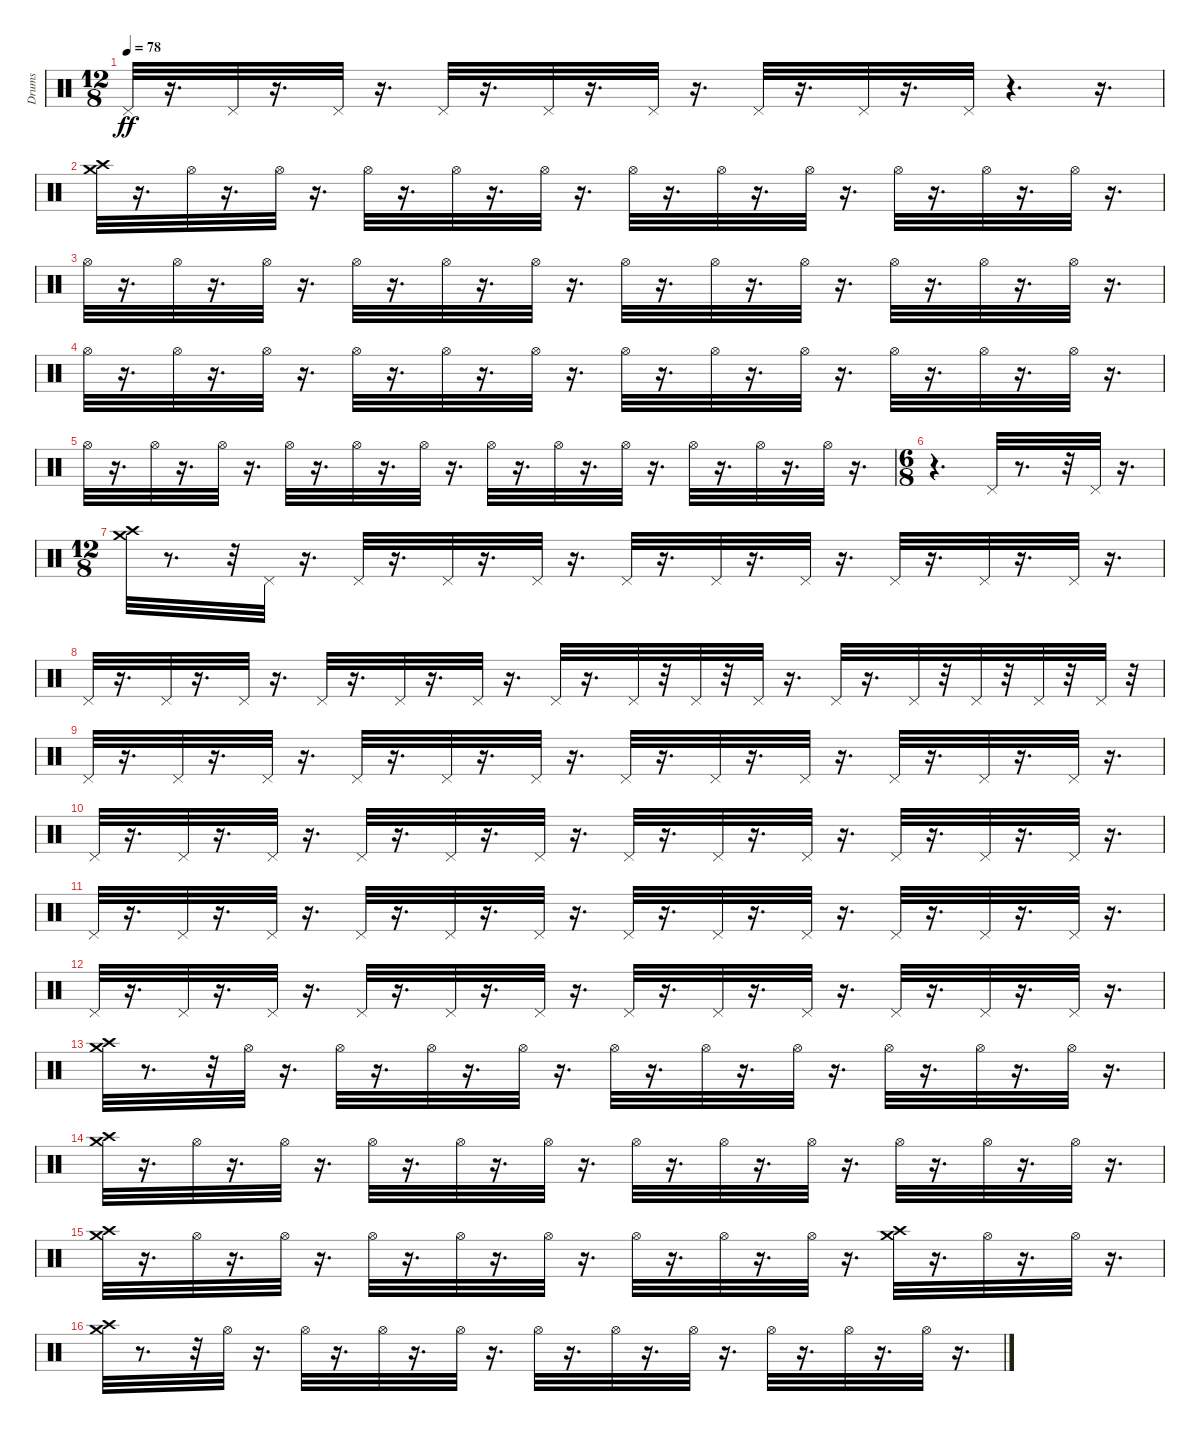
\track ("Drums" "Drums") {instrument percussion}
\staff {score}
\articulation defaults
\ts (12 8)
\tempo 78
\clef neutral
\ks c "Pedal Hi-Hat (hit)".32{dy ff}
r.16{d} "Pedal Hi-Hat (hit)".32 r.16{d} "Pedal Hi-Hat (hit)".32 r.16{d} "Pedal Hi-Hat (hit)".32 r.16{d} "Pedal Hi-Hat (hit)".32 r.16{d} "Pedal Hi-Hat (hit)".32 r.16{d} "Pedal Hi-Hat (hit)".32 r.16{d} "Pedal Hi-Hat (hit)".32 r.16{d} "Pedal Hi-Hat (hit)".32 r.4{d} r.16{d} |
("Crash high (hit)" "Crash medium (hit)").32 r.16{d} "Hi-Hat (open)".32 r.16{d} "Hi-Hat (open)".32 r.16{d} "Hi-Hat (open)".32 r.16{d} "Hi-Hat (open)".32 r.16{d} "Hi-Hat (open)".32 r.16{d} "Hi-Hat (open)".32 r.16{d} "Hi-Hat (open)".32 r.16{d} "Hi-Hat (open)".32 r.16{d} "Hi-Hat (open)".32 r.16{d} "Hi-Hat (open)".32 r.16{d} "Hi-Hat (open)".32 r.16{d} |
"Hi-Hat (open)".32 r.16{d} "Hi-Hat (open)".32 r.16{d} "Hi-Hat (open)".32 r.16{d} "Hi-Hat (open)".32 r.16{d} "Hi-Hat (open)".32 r.16{d} "Hi-Hat (open)".32 r.16{d} "Hi-Hat (open)".32 r.16{d} "Hi-Hat (open)".32 r.16{d} "Hi-Hat (open)".32 r.16{d} "Hi-Hat (open)".32 r.16{d} "Hi-Hat (open)".32 r.16{d} "Hi-Hat (open)".32 r.16{d} |
"Hi-Hat (open)".32 r.16{d} "Hi-Hat (open)".32 r.16{d} "Hi-Hat (open)".32 r.16{d} "Hi-Hat (open)".32 r.16{d} "Hi-Hat (open)".32 r.16{d} "Hi-Hat (open)".32 r.16{d} "Hi-Hat (open)".32 r.16{d} "Hi-Hat (open)".32 r.16{d} "Hi-Hat (open)".32 r.16{d} "Hi-Hat (open)".32 r.16{d} "Hi-Hat (open)".32 r.16{d} "Hi-Hat (open)".32 r.16{d} |
"Hi-Hat (open)".32 r.16{d} "Hi-Hat (open)".32 r.16{d} "Hi-Hat (open)".32 r.16{d} "Hi-Hat (open)".32 r.16{d} "Hi-Hat (open)".32 r.16{d} "Hi-Hat (open)".32 r.16{d} "Hi-Hat (open)".32 r.16{d} "Hi-Hat (open)".32 r.16{d} "Hi-Hat (open)".32 r.16{d} "Hi-Hat (open)".32 r.16{d} "Hi-Hat (open)".32 r.16{d} "Hi-Hat (open)".32 r.16{d} |
\ts (6 8)
r.4{d} "Pedal Hi-Hat (hit)".32 r.8{d} r.32 "Pedal Hi-Hat (hit)".32 r.16{d} |
\ts (12 8)
("Crash medium (hit)" "Crash high (hit)").32 r.8{d} r.32 "Pedal Hi-Hat (hit)".32 r.16{d} "Pedal Hi-Hat (hit)".32 r.16{d} "Pedal Hi-Hat (hit)".32 r.16{d} "Pedal Hi-Hat (hit)".32 r.16{d} "Pedal Hi-Hat (hit)".32 r.16{d} "Pedal Hi-Hat (hit)".32 r.16{d} "Pedal Hi-Hat (hit)".32 r.16{d} "Pedal Hi-Hat (hit)".32 r.16{d} "Pedal Hi-Hat (hit)".32 r.16{d} "Pedal Hi-Hat (hit)".32 r.16{d} |
"Pedal Hi-Hat (hit)".32 r.16{d} "Pedal Hi-Hat (hit)".32 r.16{d} "Pedal Hi-Hat (hit)".32 r.16{d} "Pedal Hi-Hat (hit)".32 r.16{d} "Pedal Hi-Hat (hit)".32 r.16{d} "Pedal Hi-Hat (hit)".32 r.16{d} "Pedal Hi-Hat (hit)".32 r.16{d} "Pedal Hi-Hat (hit)".32 r.32 "Pedal Hi-Hat (hit)".32 r.32 "Pedal Hi-Hat (hit)".32 r.16{d} "Pedal Hi-Hat (hit)".32 r.16{d} "Pedal Hi-Hat (hit)".32 r.32 "Pedal Hi-Hat (hit)".32 r.32 "Pedal Hi-Hat (hit)".32 r.32 "Pedal Hi-Hat (hit)".32 r.32 |
"Pedal Hi-Hat (hit)".32 r.16{d} "Pedal Hi-Hat (hit)".32 r.16{d} "Pedal Hi-Hat (hit)".32 r.16{d} "Pedal Hi-Hat (hit)".32 r.16{d} "Pedal Hi-Hat (hit)".32 r.16{d} "Pedal Hi-Hat (hit)".32 r.16{d} "Pedal Hi-Hat (hit)".32 r.16{d} "Pedal Hi-Hat (hit)".32 r.16{d} "Pedal Hi-Hat (hit)".32 r.16{d} "Pedal Hi-Hat (hit)".32 r.16{d} "Pedal Hi-Hat (hit)".32 r.16{d} "Pedal Hi-Hat (hit)".32 r.16{d} |
"Pedal Hi-Hat (hit)".32 r.16{d} "Pedal Hi-Hat (hit)".32 r.16{d} "Pedal Hi-Hat (hit)".32 r.16{d} "Pedal Hi-Hat (hit)".32 r.16{d} "Pedal Hi-Hat (hit)".32 r.16{d} "Pedal Hi-Hat (hit)".32 r.16{d} "Pedal Hi-Hat (hit)".32 r.16{d} "Pedal Hi-Hat (hit)".32 r.16{d} "Pedal Hi-Hat (hit)".32 r.16{d} "Pedal Hi-Hat (hit)".32 r.16{d} "Pedal Hi-Hat (hit)".32 r.16{d} "Pedal Hi-Hat (hit)".32 r.16{d} |
"Pedal Hi-Hat (hit)".32 r.16{d} "Pedal Hi-Hat (hit)".32 r.16{d} "Pedal Hi-Hat (hit)".32 r.16{d} "Pedal Hi-Hat (hit)".32 r.16{d} "Pedal Hi-Hat (hit)".32 r.16{d} "Pedal Hi-Hat (hit)".32 r.16{d} "Pedal Hi-Hat (hit)".32 r.16{d} "Pedal Hi-Hat (hit)".32 r.16{d} "Pedal Hi-Hat (hit)".32 r.16{d} "Pedal Hi-Hat (hit)".32 r.16{d} "Pedal Hi-Hat (hit)".32 r.16{d} "Pedal Hi-Hat (hit)".32 r.16{d} |
"Pedal Hi-Hat (hit)".32 r.16{d} "Pedal Hi-Hat (hit)".32 r.16{d} "Pedal Hi-Hat (hit)".32 r.16{d} "Pedal Hi-Hat (hit)".32 r.16{d} "Pedal Hi-Hat (hit)".32 r.16{d} "Pedal Hi-Hat (hit)".32 r.16{d} "Pedal Hi-Hat (hit)".32 r.16{d} "Pedal Hi-Hat (hit)".32 r.16{d} "Pedal Hi-Hat (hit)".32 r.16{d} "Pedal Hi-Hat (hit)".32 r.16{d} "Pedal Hi-Hat (hit)".32 r.16{d} "Pedal Hi-Hat (hit)".32 r.16{d} |
("Crash high (hit)" "Crash medium (hit)").32 r.8{d} r.32 "Hi-Hat (open)".32 r.16{d} "Hi-Hat (open)".32 r.16{d} "Hi-Hat (open)".32 r.16{d} "Hi-Hat (open)".32 r.16{d} "Hi-Hat (open)".32 r.16{d} "Hi-Hat (open)".32 r.16{d} "Hi-Hat (open)".32 r.16{d} "Hi-Hat (open)".32 r.16{d} "Hi-Hat (open)".32 r.16{d} "Hi-Hat (open)".32 r.16{d} |
("Crash medium (hit)" "Crash high (hit)").32 r.16{d} "Hi-Hat (open)".32 r.16{d} "Hi-Hat (open)".32 r.16{d} "Hi-Hat (open)".32 r.16{d} "Hi-Hat (open)".32 r.16{d} "Hi-Hat (open)".32 r.16{d} "Hi-Hat (open)".32 r.16{d} "Hi-Hat (open)".32 r.16{d} "Hi-Hat (open)".32 r.16{d} "Hi-Hat (open)".32 r.16{d} "Hi-Hat (open)".32 r.16{d} "Hi-Hat (open)".32 r.16{d} |
("Crash high (hit)" "Crash medium (hit)").32 r.16{d} "Hi-Hat (open)".32 r.16{d} "Hi-Hat (open)".32 r.16{d} "Hi-Hat (open)".32 r.16{d} "Hi-Hat (open)".32 r.16{d} "Hi-Hat (open)".32 r.16{d} "Hi-Hat (open)".32 r.16{d} "Hi-Hat (open)".32 r.16{d} "Hi-Hat (open)".32 r.16{d} ("Crash high (hit)" "Crash medium (hit)").32 r.16{d} "Hi-Hat (open)".32 r.16{d} "Hi-Hat (open)".32 r.16{d} |
("Crash medium (hit)" "Crash high (hit)").32 r.8{d} r.32 "Hi-Hat (open)".32 r.16{d} "Hi-Hat (open)".32 r.16{d} "Hi-Hat (open)".32 r.16{d} "Hi-Hat (open)".32 r.16{d} "Hi-Hat (open)".32 r.16{d} "Hi-Hat (open)".32 r.16{d} "Hi-Hat (open)".32 r.16{d} "Hi-Hat (open)".32 r.16{d} "Hi-Hat (open)".32 r.16{d} "Hi-Hat (open)".32 r.16{d}
